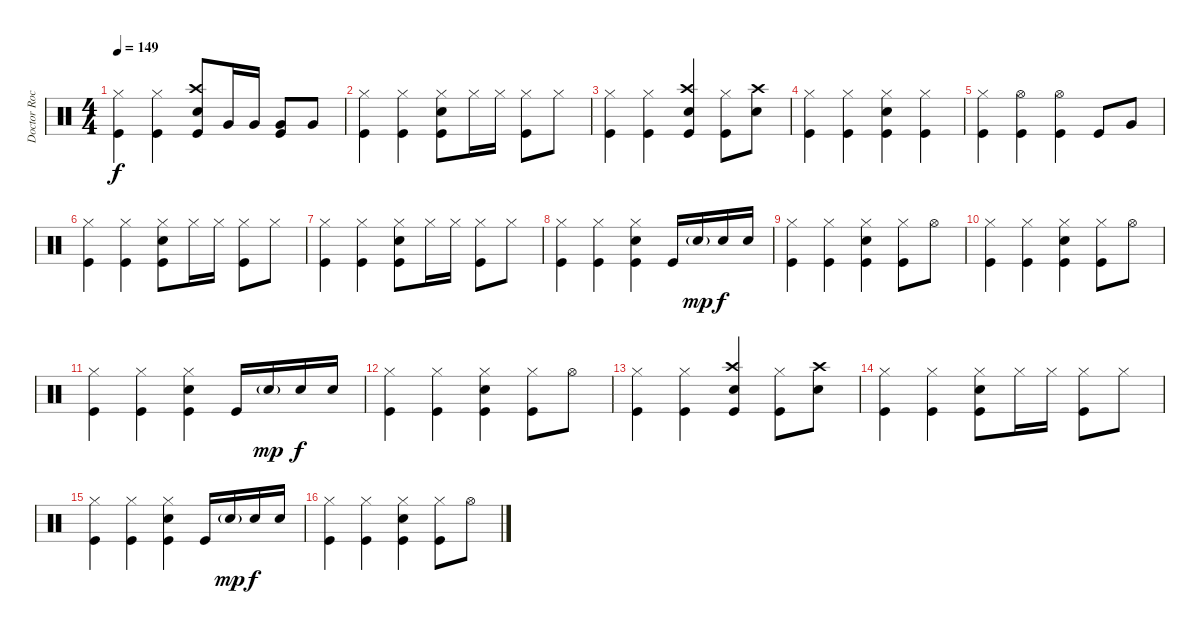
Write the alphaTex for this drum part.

\track ("Doctor Rock" "Doctor Roc") {instrument percussion}
\staff {score}
\articulation defaults
\ts (4 4)
\tempo 149
\clef neutral
\ks c
("Hi-Hat (closed)" "Kick (hit)").4{dy f} ("Hi-Hat (closed)" "Kick (hit)").4 ("Crash high (hit)" "Snare (hit) 2" "Kick (hit)").8 "Very Low Tom (hit)".16 "Very Low Tom (hit)".16 ("Kick (hit)" "Very Low Tom (hit)").8 "Very Low Tom (hit)".8 |
("Hi-Hat (closed)" "Kick (hit)").4 ("Hi-Hat (closed)" "Kick (hit)").4 ("Hi-Hat (closed)" "Snare (hit) 2" "Kick (hit)").8 "Hi-Hat (closed)".16 "Hi-Hat (closed)".16 ("Hi-Hat (closed)" "Kick (hit)").8 "Hi-Hat (closed)".8 |
("Hi-Hat (closed)" "Kick (hit)").4 ("Hi-Hat (closed)" "Kick (hit)").4 ("Crash high (hit)" "Snare (hit) 2" "Kick (hit)").4 ("Hi-Hat (closed)" "Kick (hit)").8 ("Crash high (hit)" "Snare (hit) 2").8 |
("Hi-Hat (closed)" "Kick (hit)").4 ("Hi-Hat (closed)" "Kick (hit)").4 ("Hi-Hat (closed)" "Snare (hit) 2" "Kick (hit)").4 ("Hi-Hat (closed)" "Kick (hit)").4 |
("Hi-Hat (closed)" "Kick (hit)").4 ("Hi-Hat (open)" "Kick (hit)").4 ("Hi-Hat (open)" "Kick (hit)").4 "Kick (hit)".8 "Very Low Tom (hit)".8 |
("Hi-Hat (closed)" "Kick (hit)").4 ("Hi-Hat (closed)" "Kick (hit)").4 ("Hi-Hat (closed)" "Snare (hit) 2" "Kick (hit)").8 "Hi-Hat (closed)".16 "Hi-Hat (closed)".16 ("Hi-Hat (closed)" "Kick (hit)").8 "Hi-Hat (closed)".8 |
("Hi-Hat (closed)" "Kick (hit)").4 ("Hi-Hat (closed)" "Kick (hit)").4 ("Hi-Hat (closed)" "Snare (hit) 2" "Kick (hit)").8 "Hi-Hat (closed)".16 "Hi-Hat (closed)".16 ("Hi-Hat (closed)" "Kick (hit)").8 "Hi-Hat (closed)".8 |
("Hi-Hat (closed)" "Kick (hit)").4 ("Hi-Hat (closed)" "Kick (hit)").4 ("Hi-Hat (closed)" "Snare (hit) 2" "Kick (hit)").4 "Kick (hit)".16 "Snare (hit) 2"{g}.16{dy mp} "Snare (hit) 2".16{dy f} "Snare (hit) 2".16 |
("Hi-Hat (closed)" "Kick (hit)").4 ("Hi-Hat (closed)" "Kick (hit)").4 ("Hi-Hat (closed)" "Snare (hit) 2" "Kick (hit)").4 ("Hi-Hat (closed)" "Kick (hit)").8 "Hi-Hat (open)".8 |
("Hi-Hat (closed)" "Kick (hit)").4 ("Hi-Hat (closed)" "Kick (hit)").4 ("Hi-Hat (closed)" "Snare (hit) 2" "Kick (hit)").4 ("Hi-Hat (closed)" "Kick (hit)").8 "Hi-Hat (open)".8 |
("Hi-Hat (closed)" "Kick (hit)").4 ("Hi-Hat (closed)" "Kick (hit)").4 ("Hi-Hat (closed)" "Snare (hit) 2" "Kick (hit)").4 "Kick (hit)".16 "Snare (hit) 2"{g}.16{dy mp} "Snare (hit) 2".16{dy f} "Snare (hit) 2".16 |
("Hi-Hat (closed)" "Kick (hit)").4 ("Hi-Hat (closed)" "Kick (hit)").4 ("Hi-Hat (closed)" "Snare (hit) 2" "Kick (hit)").4 ("Hi-Hat (closed)" "Kick (hit)").8 "Hi-Hat (open)".8 |
("Hi-Hat (closed)" "Kick (hit)").4 ("Hi-Hat (closed)" "Kick (hit)").4 ("Crash high (hit)" "Snare (hit) 2" "Kick (hit)").4 ("Hi-Hat (closed)" "Kick (hit)").8 ("Crash high (hit)" "Snare (hit) 2").8 |
("Hi-Hat (closed)" "Kick (hit)").4 ("Hi-Hat (closed)" "Kick (hit)").4 ("Hi-Hat (closed)" "Snare (hit) 2" "Kick (hit)").8 "Hi-Hat (closed)".16 "Hi-Hat (closed)".16 ("Hi-Hat (closed)" "Kick (hit)").8 "Hi-Hat (closed)".8 |
("Hi-Hat (closed)" "Kick (hit)").4 ("Hi-Hat (closed)" "Kick (hit)").4 ("Hi-Hat (closed)" "Snare (hit) 2" "Kick (hit)").4 "Kick (hit)".16 "Snare (hit) 2"{g}.16{dy mp} "Snare (hit) 2".16{dy f} "Snare (hit) 2".16 |
("Hi-Hat (closed)" "Kick (hit)").4 ("Hi-Hat (closed)" "Kick (hit)").4 ("Hi-Hat (closed)" "Snare (hit) 2" "Kick (hit)").4 ("Hi-Hat (closed)" "Kick (hit)").8 "Hi-Hat (open)".8
